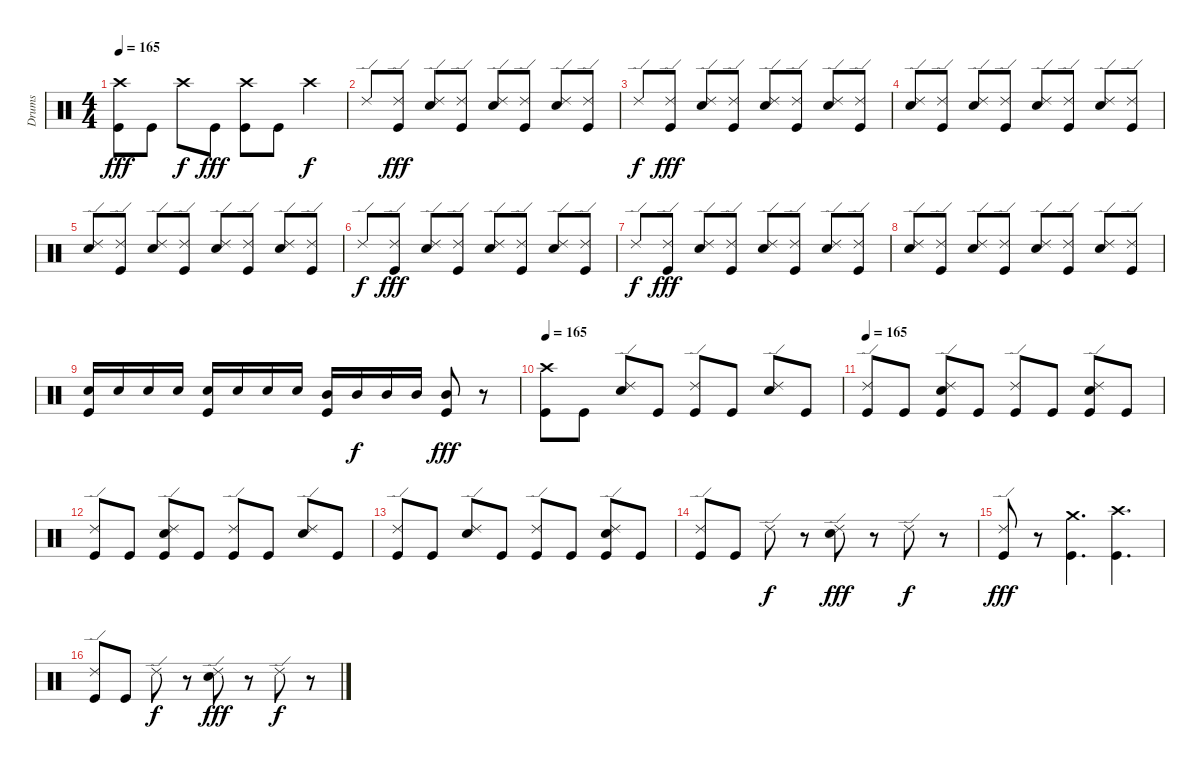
\track ("Drums" "Drums") {instrument percussion}
\staff {score}
\articulation defaults
\ts (4 4)
\tempo 165
\clef neutral
\ks c
("Crash high (hit)" "Kick (hit)").8{dy fff} "Kick (hit)".8 "Crash high (hit)".8{dy f} "Kick (hit)".8{dy fff} ("Crash high (hit)" "Kick (hit)").8 "Kick (hit)".8 "Crash high (hit)".4{dy f} |
"Ride (edge) 2".8 ("Ride (edge) 2" "Kick (hit)").8{dy fff} ("Ride (edge) 2" "Snare (hit) 2").8 ("Ride (edge) 2" "Kick (hit)").8 ("Ride (edge) 2" "Snare (hit) 2").8 ("Ride (edge) 2" "Kick (hit)").8 ("Ride (edge) 2" "Snare (hit) 2").8 ("Ride (edge) 2" "Kick (hit)").8 |
"Ride (edge) 2".8{dy f} ("Ride (edge) 2" "Kick (hit)").8{dy fff} ("Ride (edge) 2" "Snare (hit) 2").8 ("Ride (edge) 2" "Kick (hit)").8 ("Ride (edge) 2" "Snare (hit) 2").8 ("Ride (edge) 2" "Kick (hit)").8 ("Ride (edge) 2" "Snare (hit) 2").8 ("Ride (edge) 2" "Kick (hit)").8 |
("Ride (edge) 2" "Snare (hit) 2").8 ("Ride (edge) 2" "Kick (hit)").8 ("Ride (edge) 2" "Snare (hit) 2").8 ("Ride (edge) 2" "Kick (hit)").8 ("Ride (edge) 2" "Snare (hit) 2").8 ("Ride (edge) 2" "Kick (hit)").8 ("Ride (edge) 2" "Snare (hit) 2").8 ("Ride (edge) 2" "Kick (hit)").8 |
("Ride (edge) 2" "Snare (hit) 2").8 ("Ride (edge) 2" "Kick (hit)").8 ("Ride (edge) 2" "Snare (hit) 2").8 ("Ride (edge) 2" "Kick (hit)").8 ("Ride (edge) 2" "Snare (hit) 2").8 ("Ride (edge) 2" "Kick (hit)").8 ("Ride (edge) 2" "Snare (hit) 2").8 ("Ride (edge) 2" "Kick (hit)").8 |
"Ride (edge) 2".8{dy f} ("Ride (edge) 2" "Kick (hit)").8{dy fff} ("Ride (edge) 2" "Snare (hit) 2").8 ("Ride (edge) 2" "Kick (hit)").8 ("Ride (edge) 2" "Snare (hit) 2").8 ("Ride (edge) 2" "Kick (hit)").8 ("Ride (edge) 2" "Snare (hit) 2").8 ("Ride (edge) 2" "Kick (hit)").8 |
"Ride (edge) 2".8{dy f} ("Ride (edge) 2" "Kick (hit)").8{dy fff} ("Ride (edge) 2" "Snare (hit) 2").8 ("Ride (edge) 2" "Kick (hit)").8 ("Ride (edge) 2" "Snare (hit) 2").8 ("Ride (edge) 2" "Kick (hit)").8 ("Ride (edge) 2" "Snare (hit) 2").8 ("Ride (edge) 2" "Kick (hit)").8 |
("Ride (edge) 2" "Snare (hit) 2").8 ("Ride (edge) 2" "Kick (hit)").8 ("Ride (edge) 2" "Snare (hit) 2").8 ("Ride (edge) 2" "Kick (hit)").8 ("Ride (edge) 2" "Snare (hit) 2").8 ("Ride (edge) 2" "Kick (hit)").8 ("Ride (edge) 2" "Snare (hit) 2").8 ("Ride (edge) 2" "Kick (hit)").8 |
("Snare (hit) 2" "Kick (hit)").16 "Snare (hit) 2".16 "Snare (hit) 2".16 "Snare (hit) 2".16 ("Snare (hit) 2" "Kick (hit)").16 "Snare (hit) 2".16 "Snare (hit) 2".16 "Snare (hit) 2".16 ("Mid Tom (hit)" "Kick (hit)").16 "Mid Tom (hit)".16{dy f} "Mid Tom (hit)".16 "Mid Tom (hit)".16 ("Mid Tom (hit)" "Kick (hit)").8{dy fff} r.8 |
\tempo 165
("Crash high (hit)" "Kick (hit)").8 "Kick (hit)".8 ("Ride (edge) 2" "Snare (hit) 2").8 "Kick (hit)".8 ("Ride (edge) 2" "Kick (hit)").8 "Kick (hit)".8 ("Ride (edge) 2" "Snare (hit) 2").8 "Kick (hit)".8 |
\tempo 165
("Ride (edge) 2" "Kick (hit)").8 "Kick (hit)".8 ("Ride (edge) 2" "Snare (hit) 2" "Kick (hit)").8 "Kick (hit)".8 ("Ride (edge) 2" "Kick (hit)").8 "Kick (hit)".8 ("Ride (edge) 2" "Snare (hit) 2" "Kick (hit)").8 "Kick (hit)".8 |
("Ride (edge) 2" "Kick (hit)").8 "Kick (hit)".8 ("Ride (edge) 2" "Snare (hit) 2" "Kick (hit)").8 "Kick (hit)".8 ("Ride (edge) 2" "Kick (hit)").8 "Kick (hit)".8 ("Ride (edge) 2" "Snare (hit) 2").8 "Kick (hit)".8 |
("Ride (edge) 2" "Kick (hit)").8 "Kick (hit)".8 ("Ride (edge) 2" "Snare (hit) 2").8 "Kick (hit)".8 ("Ride (edge) 2" "Kick (hit)").8 "Kick (hit)".8 ("Ride (edge) 2" "Snare (hit) 2" "Kick (hit)").8 "Kick (hit)".8 |
("Ride (edge) 2" "Kick (hit)").8 "Kick (hit)".8 "Ride (edge) 2".8{dy f} r.8 ("Ride (edge) 2" "Snare (hit) 2").8{dy fff} r.8 "Ride (edge) 2".8{dy f} r.8 |
("Ride (edge) 2" "Kick (hit)").8{dy fff} r.8 ("Crash medium (hit)" "Kick (hit)").4{d} ("Crash high (hit)" "Kick (hit)").4{d} |
("Ride (edge) 2" "Kick (hit)").8 "Kick (hit)".8 "Ride (edge) 2".8{dy f} r.8 ("Ride (edge) 2" "Snare (hit) 2").8{dy fff} r.8 "Ride (edge) 2".8{dy f} r.8
